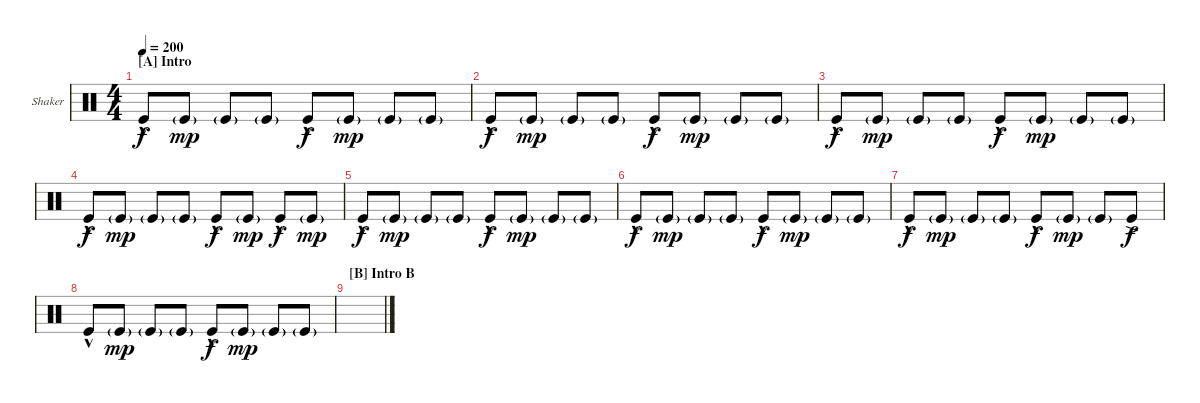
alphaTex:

\defaultSystemsLayout 4
\bracketExtendMode groupsimilarinstruments
\firstSystemTrackNameOrientation horizontal
\otherSystemsTrackNameOrientation horizontal
\track ("Shaker" "Shaker") {instrument percussion}
\staff {score}
\articulation defaults
\ts (4 4)
\section ("A" "Intro")
\tempo 200
\clef neutral
\scale
0.472222
\ks c "Kick (hit)"{hac}.8{dy f} "Kick (hit)"{g}.8{dy mp} "Kick (hit)"{g}.8 "Kick (hit)"{g}.8 "Kick (hit)"{hac}.8{dy f} "Kick (hit)"{g}.8{dy mp} "Kick (hit)"{g}.8 "Kick (hit)"{g}.8
|
\scale
0.263889 "Kick (hit)"{hac}.8{dy f} "Kick (hit)"{g}.8{dy mp} "Kick (hit)"{g}.8 "Kick (hit)"{g}.8 "Kick (hit)"{hac}.8{dy f} "Kick (hit)"{g}.8{dy mp} "Kick (hit)"{g}.8 "Kick (hit)"{g}.8 |
\scale
0.263889 "Kick (hit)"{hac}.8{dy f} "Kick (hit)"{g}.8{dy mp} "Kick (hit)"{g}.8 "Kick (hit)"{g}.8 "Kick (hit)"{hac}.8{dy f} "Kick (hit)"{g}.8{dy mp} "Kick (hit)"{g}.8 "Kick (hit)"{g}.8 |
\scale
0.333333 "Kick (hit)"{hac}.8{dy f} "Kick (hit)"{g}.8{dy mp} "Kick (hit)"{g}.8 "Kick (hit)"{g}.8 "Kick (hit)"{hac}.8{dy f} "Kick (hit)"{g}.8{dy mp} "Kick (hit)"{hac}.8{dy f} "Kick (hit)"{g}.8{dy mp} |
\scale
0.333333 "Kick (hit)"{hac}.8{dy f} "Kick (hit)"{g}.8{dy mp} "Kick (hit)"{g}.8 "Kick (hit)"{g}.8 "Kick (hit)"{hac}.8{dy f} "Kick (hit)"{g}.8{dy mp} "Kick (hit)"{g}.8 "Kick (hit)"{g}.8 |
\scale
0.333333 "Kick (hit)"{hac}.8{dy f} "Kick (hit)"{g}.8{dy mp} "Kick (hit)"{g}.8 "Kick (hit)"{g}.8 "Kick (hit)"{hac}.8{dy f} "Kick (hit)"{g}.8{dy mp} "Kick (hit)"{g}.8 "Kick (hit)"{g}.8 |
\scale
0.333333 "Kick (hit)"{hac}.8{dy f} "Kick (hit)"{g}.8{dy mp} "Kick (hit)"{g}.8 "Kick (hit)"{g}.8 "Kick (hit)"{hac}.8{dy f} "Kick (hit)"{g}.8{dy mp} "Kick (hit)"{g}.8 "Kick (hit)"{ac}.8{dy f} |
\scale
0.333333 "Kick (hit)"{hac}.8 "Kick (hit)"{g}.8{dy mp} "Kick (hit)"{g}.8 "Kick (hit)"{g}.8 "Kick (hit)"{hac}.8{dy f} "Kick (hit)"{g}.8{dy mp} "Kick (hit)"{g}.8 "Kick (hit)"{g}.8 |
\section ("B" "Intro B")
\scale
0.333333 |
\scale
0.333333 |
\scale
0.333333 |
\scale
0.333333 |
\scale
0.333333 |
\scale
0.333333 |
\scale
0.333333 |
\scale
0.333333
